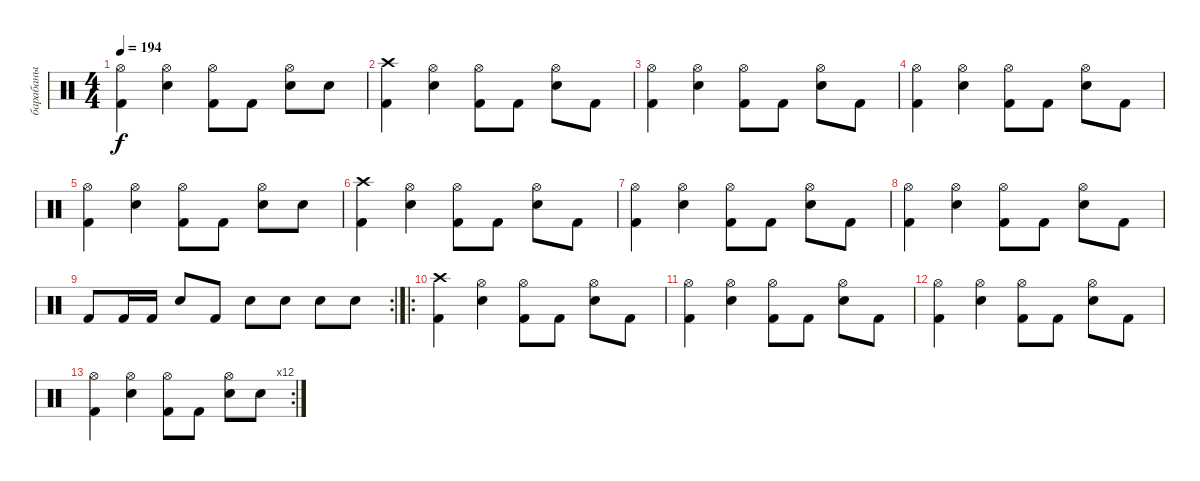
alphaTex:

\track ("барабаны" "барабаны") {instrument percussion}
\staff {score}
\articulation defaults
\ts (4 4)
\tempo 194
\clef neutral
\ks c
("Hi-Hat (open)" "Kick (hit) 2").4{dy f} ("Hi-Hat (open)" "Snare (hit) 2").4 ("Hi-Hat (open)" "Kick (hit) 2").8 "Kick (hit) 2".8 ("Hi-Hat (open)" "Snare (hit) 2").8 "Snare (hit) 2".8 |
("Crash high (hit)" "Kick (hit) 2").4 ("Hi-Hat (open)" "Snare (hit) 2").4 ("Hi-Hat (open)" "Kick (hit) 2").8 "Kick (hit) 2".8 ("Hi-Hat (open)" "Snare (hit) 2").8 "Kick (hit) 2".8 |
("Hi-Hat (open)" "Kick (hit) 2").4 ("Hi-Hat (open)" "Snare (hit) 2").4 ("Hi-Hat (open)" "Kick (hit) 2").8 "Kick (hit) 2".8 ("Hi-Hat (open)" "Snare (hit) 2").8 "Kick (hit) 2".8 |
("Hi-Hat (open)" "Kick (hit) 2").4 ("Hi-Hat (open)" "Snare (hit) 2").4 ("Hi-Hat (open)" "Kick (hit) 2").8 "Kick (hit) 2".8 ("Hi-Hat (open)" "Snare (hit) 2").8 "Kick (hit) 2".8 |
("Hi-Hat (open)" "Kick (hit) 2").4 ("Hi-Hat (open)" "Snare (hit) 2").4 ("Hi-Hat (open)" "Kick (hit) 2").8 "Kick (hit) 2".8 ("Hi-Hat (open)" "Snare (hit) 2").8 "Snare (hit) 2".8 |
("Crash high (hit)" "Kick (hit) 2").4 ("Hi-Hat (open)" "Snare (hit) 2").4 ("Hi-Hat (open)" "Kick (hit) 2").8 "Kick (hit) 2".8 ("Hi-Hat (open)" "Snare (hit) 2").8 "Kick (hit) 2".8 |
("Hi-Hat (open)" "Kick (hit) 2").4 ("Hi-Hat (open)" "Snare (hit) 2").4 ("Hi-Hat (open)" "Kick (hit) 2").8 "Kick (hit) 2".8 ("Hi-Hat (open)" "Snare (hit) 2").8 "Kick (hit) 2".8 |
("Hi-Hat (open)" "Kick (hit) 2").4 ("Hi-Hat (open)" "Snare (hit) 2").4 ("Hi-Hat (open)" "Kick (hit) 2").8 "Kick (hit) 2".8 ("Hi-Hat (open)" "Snare (hit) 2").8 "Kick (hit) 2".8 |
\rc 2 "Kick (hit) 2".8 "Kick (hit) 2".16 "Kick (hit) 2".16 "Snare (hit) 2".8 "Kick (hit) 2".8 "Snare (hit) 2".8 "Snare (hit) 2".8 "Snare (hit) 2".8 "Snare (hit) 2".8
|
\ro
("Crash high (hit)" "Kick (hit) 2").4 ("Hi-Hat (open)" "Snare (hit) 2").4 ("Hi-Hat (open)" "Kick (hit) 2").8 "Kick (hit) 2".8 ("Hi-Hat (open)" "Snare (hit) 2").8 "Kick (hit) 2".8 |
("Hi-Hat (open)" "Kick (hit) 2").4 ("Hi-Hat (open)" "Snare (hit) 2").4 ("Hi-Hat (open)" "Kick (hit) 2").8 "Kick (hit) 2".8 ("Hi-Hat (open)" "Snare (hit) 2").8 "Kick (hit) 2".8 |
("Hi-Hat (open)" "Kick (hit) 2").4 ("Hi-Hat (open)" "Snare (hit) 2").4 ("Hi-Hat (open)" "Kick (hit) 2").8 "Kick (hit) 2".8 ("Hi-Hat (open)" "Snare (hit) 2").8 "Kick (hit) 2".8 |
\rc 12
("Hi-Hat (open)" "Kick (hit) 2").4 ("Hi-Hat (open)" "Snare (hit) 2").4 ("Hi-Hat (open)" "Kick (hit) 2").8 "Kick (hit) 2".8 ("Hi-Hat (open)" "Snare (hit) 2").8 "Snare (hit) 2".8
